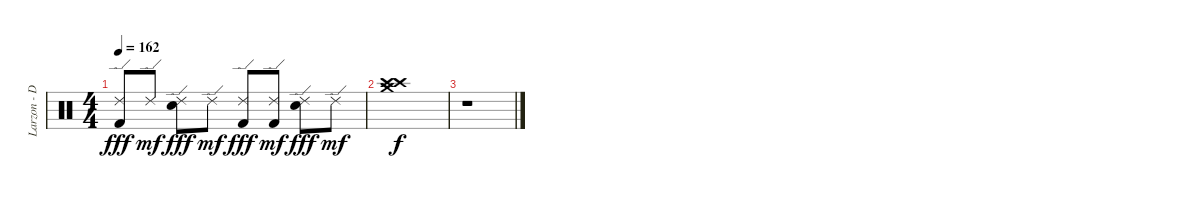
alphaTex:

\track ("Larzon - Drums" "Larzon - D") {instrument percussion}
\staff {score}
\articulation defaults
\ts (4 4)
\tempo 162
\clef neutral
\ks c
("Kick (hit) 2" "Ride (edge) 2").8{dy fff} "Ride (edge) 2".8{dy mf} ("Electric Snare (hit)" "Ride (edge) 2").8{dy fff} "Ride (edge) 2".8{dy mf} ("Kick (hit) 2" "Ride (edge) 2").8{dy fff} ("Kick (hit) 2" "Ride (edge) 2").8{dy mf} ("Electric Snare (hit)" "Ride (edge) 2").8{dy fff} "Ride (edge) 2".8{dy mf} |
("Crash high (hit)" "Crash medium (hit)" "Crash high (hit)").1{dy f} |
r.1
